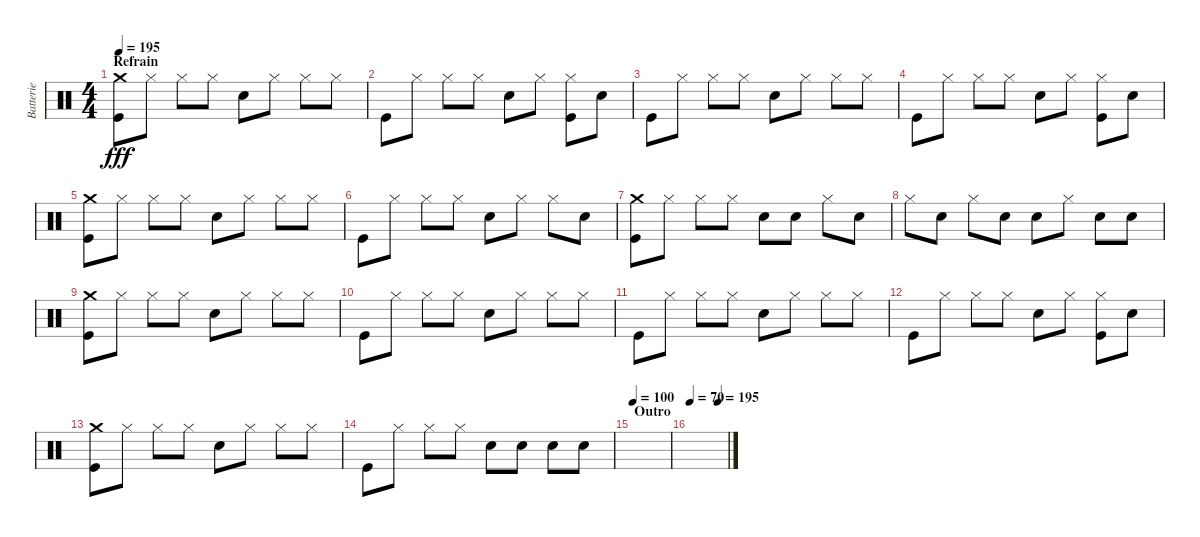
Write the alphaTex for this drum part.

\track ("Batterie" "Batterie") {instrument percussion}
\staff {score}
\articulation defaults
\ts (4 4)
\section ("" "Refrain")
\tempo 195
\clef neutral
\ks c
("Crash medium (hit)" "Kick (hit)").8{dy fff} "Hi-Hat (closed)".8 "Hi-Hat (closed)".8 "Hi-Hat (closed)".8 "Electric Snare (hit)".8 "Hi-Hat (closed)".8 "Hi-Hat (closed)".8 "Hi-Hat (closed)".8 |
"Kick (hit)".8 "Hi-Hat (closed)".8 "Hi-Hat (closed)".8 "Hi-Hat (closed)".8 "Electric Snare (hit)".8 "Hi-Hat (closed)".8 ("Hi-Hat (closed)" "Kick (hit)").8 "Electric Snare (hit)".8 |
"Kick (hit)".8 "Hi-Hat (closed)".8 "Hi-Hat (closed)".8 "Hi-Hat (closed)".8 "Electric Snare (hit)".8 "Hi-Hat (closed)".8 "Hi-Hat (closed)".8 "Hi-Hat (closed)".8 |
"Kick (hit)".8 "Hi-Hat (closed)".8 "Hi-Hat (closed)".8 "Hi-Hat (closed)".8 "Electric Snare (hit)".8 "Hi-Hat (closed)".8 ("Hi-Hat (closed)" "Kick (hit)").8 "Electric Snare (hit)".8 |
("Crash medium (hit)" "Kick (hit)").8 "Hi-Hat (closed)".8 "Hi-Hat (closed)".8 "Hi-Hat (closed)".8 "Electric Snare (hit)".8 "Hi-Hat (closed)".8 "Hi-Hat (closed)".8 "Hi-Hat (closed)".8 |
"Kick (hit)".8 "Hi-Hat (closed)".8 "Hi-Hat (closed)".8 "Hi-Hat (closed)".8 "Electric Snare (hit)".8 "Hi-Hat (closed)".8 "Hi-Hat (closed)".8 "Electric Snare (hit)".8 |
("Crash medium (hit)" "Kick (hit)").8 "Hi-Hat (closed)".8 "Hi-Hat (closed)".8 "Hi-Hat (closed)".8 "Electric Snare (hit)".8 "Electric Snare (hit)".8 "Hi-Hat (closed)".8 "Electric Snare (hit)".8 |
"Hi-Hat (closed)".8 "Electric Snare (hit)".8 "Hi-Hat (closed)".8 "Electric Snare (hit)".8 "Electric Snare (hit)".8 "Hi-Hat (closed)".8 "Electric Snare (hit)".8 "Electric Snare (hit)".8 |
("Crash medium (hit)" "Kick (hit)").8 "Hi-Hat (closed)".8 "Hi-Hat (closed)".8 "Hi-Hat (closed)".8 "Electric Snare (hit)".8 "Hi-Hat (closed)".8 "Hi-Hat (closed)".8 "Hi-Hat (closed)".8 |
"Kick (hit)".8 "Hi-Hat (closed)".8 "Hi-Hat (closed)".8 "Hi-Hat (closed)".8 "Electric Snare (hit)".8 "Hi-Hat (closed)".8 "Hi-Hat (closed)".8 "Hi-Hat (closed)".8 |
"Kick (hit)".8 "Hi-Hat (closed)".8 "Hi-Hat (closed)".8 "Hi-Hat (closed)".8 "Electric Snare (hit)".8 "Hi-Hat (closed)".8 "Hi-Hat (closed)".8 "Hi-Hat (closed)".8 |
"Kick (hit)".8 "Hi-Hat (closed)".8 "Hi-Hat (closed)".8 "Hi-Hat (closed)".8 "Electric Snare (hit)".8 "Hi-Hat (closed)".8 ("Hi-Hat (closed)" "Kick (hit)").8 "Electric Snare (hit)".8 |
("Crash medium (hit)" "Kick (hit)").8 "Hi-Hat (closed)".8 "Hi-Hat (closed)".8 "Hi-Hat (closed)".8 "Electric Snare (hit)".8 "Hi-Hat (closed)".8 "Hi-Hat (closed)".8 "Hi-Hat (closed)".8 |
"Kick (hit)".8 "Hi-Hat (closed)".8 "Hi-Hat (closed)".8 "Hi-Hat (closed)".8 "Electric Snare (hit)".8 "Electric Snare (hit)".8 "Electric Snare (hit)".8 "Electric Snare (hit)".8 |
\section ("" "Outro")
\tempo 100
|
\tempo 70
\tempo (195 0.75)
